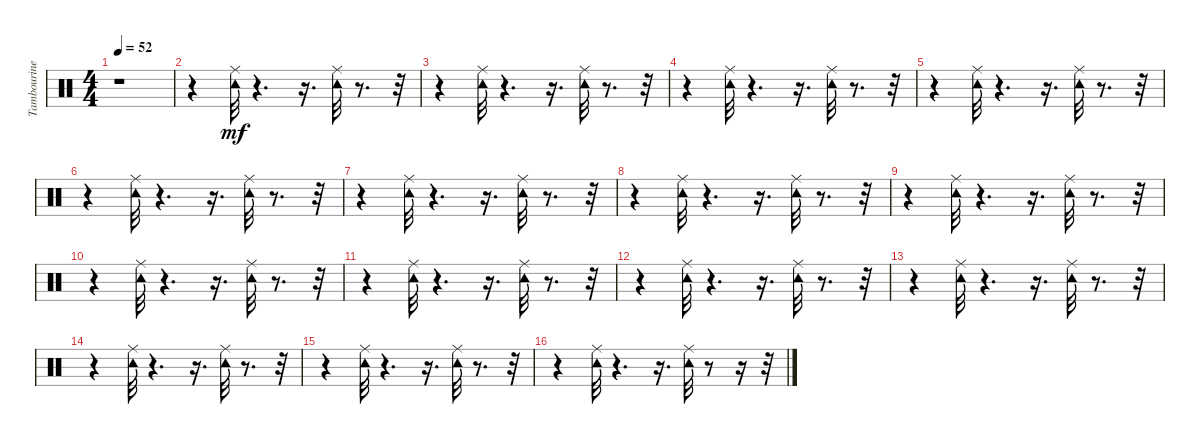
\track ("Tambourine" "Tambourine") {instrument percussion}
\staff {score}
\articulation defaults
\ts (4 4)
\tempo 52
\clef neutral
\ks c
r.1{dy mf} |
r.4 ("Ride (middle)" "Tambourine (hit)").32 r.4{d} r.16{d} ("Ride (middle)" "Tambourine (hit)").32 r.8{d} r.32 |
r.4 ("Ride (middle)" "Tambourine (hit)").32 r.4{d} r.16{d} ("Ride (middle)" "Tambourine (hit)").32 r.8{d} r.32 |
r.4 ("Ride (middle)" "Tambourine (hit)").32 r.4{d} r.16{d} ("Ride (middle)" "Tambourine (hit)").32 r.8{d} r.32 |
r.4 ("Ride (middle)" "Tambourine (hit)").32 r.4{d} r.16{d} ("Ride (middle)" "Tambourine (hit)").32 r.8{d} r.32 |
r.4 ("Ride (middle)" "Tambourine (hit)").32 r.4{d} r.16{d} ("Ride (middle)" "Tambourine (hit)").32 r.8{d} r.32 |
r.4 ("Ride (middle)" "Tambourine (hit)").32 r.4{d} r.16{d} ("Ride (middle)" "Tambourine (hit)").32 r.8{d} r.32 |
r.4 ("Ride (middle)" "Tambourine (hit)").32 r.4{d} r.16{d} ("Ride (middle)" "Tambourine (hit)").32 r.8{d} r.32 |
r.4 ("Ride (middle)" "Tambourine (hit)").32 r.4{d} r.16{d} ("Ride (middle)" "Tambourine (hit)").32 r.8{d} r.32 |
r.4 ("Ride (middle)" "Tambourine (hit)").32 r.4{d} r.16{d} ("Ride (middle)" "Tambourine (hit)").32 r.8{d} r.32 |
r.4 ("Ride (middle)" "Tambourine (hit)").32 r.4{d} r.16{d} ("Ride (middle)" "Tambourine (hit)").32 r.8{d} r.32 |
r.4 ("Ride (middle)" "Tambourine (hit)").32 r.4{d} r.16{d} ("Ride (middle)" "Tambourine (hit)").32 r.8{d} r.32 |
r.4 ("Ride (middle)" "Tambourine (hit)").32 r.4{d} r.16{d} ("Ride (middle)" "Tambourine (hit)").32 r.8{d} r.32 |
r.4 ("Ride (middle)" "Tambourine (hit)").32 r.4{d} r.16{d} ("Ride (middle)" "Tambourine (hit)").32 r.8{d} r.32 |
r.4 ("Ride (middle)" "Tambourine (hit)").32 r.4{d} r.16{d} ("Ride (middle)" "Tambourine (hit)").32 r.8{d} r.32 |
r.4 ("Ride (middle)" "Tambourine (hit)").32 r.4{d} r.16{d} ("Ride (middle)" "Tambourine (hit)").32 r.8 r.16 r.32
